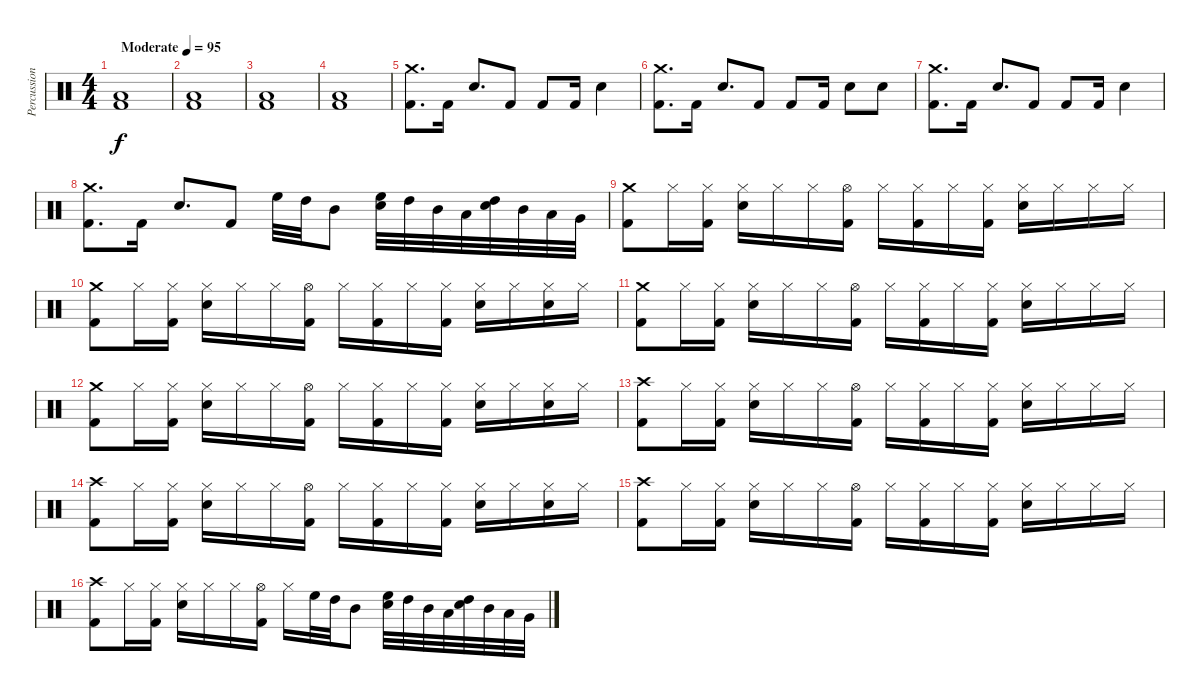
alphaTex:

\track ("Percussion" "Percussion") {instrument percussion}
\staff {score}
\articulation defaults
\ts (4 4)
\tempo (95 "Moderate")
\clef neutral
\ks c
("Low Floor Tom (hit)" "Kick (hit) 2").1{dy f} |
("Low Floor Tom (hit)" "Kick (hit) 2").1 |
("Low Floor Tom (hit)" "Kick (hit) 2").1 |
("Low Floor Tom (hit)" "Kick (hit) 2").1 |
("Crash medium (hit)" "Kick (hit) 2").8{d} "Kick (hit) 2".16 "Electric Snare (hit)".8{d} "Kick (hit) 2".8 "Kick (hit) 2".8 "Kick (hit) 2".16 "Electric Snare (hit)".4 |
("Crash medium (hit)" "Kick (hit) 2").8{d} "Kick (hit) 2".16 "Electric Snare (hit)".8{d} "Kick (hit) 2".8 "Kick (hit) 2".8 "Kick (hit) 2".16 "Electric Snare (hit)".8 "Electric Snare (hit)".8 |
("Crash medium (hit)" "Kick (hit) 2").8{d} "Kick (hit) 2".16 "Electric Snare (hit)".8{d} "Kick (hit) 2".8 "Kick (hit) 2".8 "Kick (hit) 2".16 "Electric Snare (hit)".4 |
("Crash medium (hit)" "Kick (hit) 2").8{d} "Kick (hit) 2".16 "Electric Snare (hit)".8{d} "Kick (hit) 2".8 "High Floor Tom (hit)".32 "High Tom (hit)".32 "Mid Tom (hit)".8 ("Electric Snare (hit)" "High Floor Tom (hit)").32 "High Tom (hit)".32 "Mid Tom (hit)".32 "Low Tom (hit)".32 ("Electric Snare (hit)" "High Tom (hit)").32 "Mid Tom (hit)".32 "Low Tom (hit)".32 "Very Low Tom (hit)".32 |
("Crash medium (hit)" "Kick (hit) 2").8 "Hi-Hat (closed)".16 ("Hi-Hat (closed)" "Kick (hit) 2").16 ("Hi-Hat (closed)" "Electric Snare (hit)").16 "Hi-Hat (closed)".16 "Hi-Hat (closed)".16 ("Hi-Hat (open)" "Kick (hit) 2").16 "Hi-Hat (closed)".16 ("Hi-Hat (closed)" "Kick (hit) 2").16 "Hi-Hat (closed)".16 ("Hi-Hat (closed)" "Kick (hit) 2").16 ("Hi-Hat (closed)" "Electric Snare (hit)").16 "Hi-Hat (closed)".16 "Hi-Hat (closed)".16 "Hi-Hat (closed)".16 |
("Crash medium (hit)" "Kick (hit) 2").8 "Hi-Hat (closed)".16 ("Hi-Hat (closed)" "Kick (hit) 2").16 ("Hi-Hat (closed)" "Electric Snare (hit)").16 "Hi-Hat (closed)".16 "Hi-Hat (closed)".16 ("Hi-Hat (open)" "Kick (hit) 2").16 "Hi-Hat (closed)".16 ("Hi-Hat (closed)" "Kick (hit) 2").16 "Hi-Hat (closed)".16 ("Hi-Hat (closed)" "Kick (hit) 2").16 ("Hi-Hat (closed)" "Electric Snare (hit)").16 "Hi-Hat (closed)".16 ("Hi-Hat (closed)" "Electric Snare (hit)").16 "Hi-Hat (closed)".16 |
("Crash medium (hit)" "Kick (hit) 2").8 "Hi-Hat (closed)".16 ("Hi-Hat (closed)" "Kick (hit) 2").16 ("Hi-Hat (closed)" "Electric Snare (hit)").16 "Hi-Hat (closed)".16 "Hi-Hat (closed)".16 ("Hi-Hat (open)" "Kick (hit) 2").16 "Hi-Hat (closed)".16 ("Hi-Hat (closed)" "Kick (hit) 2").16 "Hi-Hat (closed)".16 ("Hi-Hat (closed)" "Kick (hit) 2").16 ("Hi-Hat (closed)" "Electric Snare (hit)").16 "Hi-Hat (closed)".16 "Hi-Hat (closed)".16 "Hi-Hat (closed)".16 |
("Crash medium (hit)" "Kick (hit) 2").8 "Hi-Hat (closed)".16 ("Hi-Hat (closed)" "Kick (hit) 2").16 ("Hi-Hat (closed)" "Electric Snare (hit)").16 "Hi-Hat (closed)".16 "Hi-Hat (closed)".16 ("Hi-Hat (open)" "Kick (hit) 2").16 "Hi-Hat (closed)".16 ("Hi-Hat (closed)" "Kick (hit) 2").16 "Hi-Hat (closed)".16 ("Hi-Hat (closed)" "Kick (hit) 2").16 ("Hi-Hat (closed)" "Electric Snare (hit)").16 "Hi-Hat (closed)".16 ("Hi-Hat (closed)" "Electric Snare (hit)").16 "Hi-Hat (closed)".16 |
("Crash high (hit)" "Kick (hit) 2").8 "Hi-Hat (closed)".16 ("Hi-Hat (closed)" "Kick (hit) 2").16 ("Hi-Hat (closed)" "Electric Snare (hit)").16 "Hi-Hat (closed)".16 "Hi-Hat (closed)".16 ("Hi-Hat (open)" "Kick (hit) 2").16 "Hi-Hat (closed)".16 ("Hi-Hat (closed)" "Kick (hit) 2").16 "Hi-Hat (closed)".16 ("Hi-Hat (closed)" "Kick (hit) 2").16 ("Hi-Hat (closed)" "Electric Snare (hit)").16 "Hi-Hat (closed)".16 "Hi-Hat (closed)".16 "Hi-Hat (closed)".16 |
("Crash high (hit)" "Kick (hit) 2").8 "Hi-Hat (closed)".16 ("Hi-Hat (closed)" "Kick (hit) 2").16 ("Hi-Hat (closed)" "Electric Snare (hit)").16 "Hi-Hat (closed)".16 "Hi-Hat (closed)".16 ("Hi-Hat (open)" "Kick (hit) 2").16 "Hi-Hat (closed)".16 ("Hi-Hat (closed)" "Kick (hit) 2").16 "Hi-Hat (closed)".16 ("Hi-Hat (closed)" "Kick (hit) 2").16 ("Hi-Hat (closed)" "Electric Snare (hit)").16 "Hi-Hat (closed)".16 ("Hi-Hat (closed)" "Electric Snare (hit)").16 "Hi-Hat (closed)".16 |
("Crash high (hit)" "Kick (hit) 2").8 "Hi-Hat (closed)".16 ("Hi-Hat (closed)" "Kick (hit) 2").16 ("Hi-Hat (closed)" "Electric Snare (hit)").16 "Hi-Hat (closed)".16 "Hi-Hat (closed)".16 ("Hi-Hat (open)" "Kick (hit) 2").16 "Hi-Hat (closed)".16 ("Hi-Hat (closed)" "Kick (hit) 2").16 "Hi-Hat (closed)".16 ("Hi-Hat (closed)" "Kick (hit) 2").16 ("Hi-Hat (closed)" "Electric Snare (hit)").16 "Hi-Hat (closed)".16 "Hi-Hat (closed)".16 "Hi-Hat (closed)".16 |
("Crash high (hit)" "Kick (hit) 2").8 "Hi-Hat (closed)".16 ("Hi-Hat (closed)" "Kick (hit) 2").16 ("Hi-Hat (closed)" "Electric Snare (hit)").16 "Hi-Hat (closed)".16 "Hi-Hat (closed)".16 ("Hi-Hat (open)" "Kick (hit) 2").16 "Hi-Hat (closed)".16 "High Floor Tom (hit)".32 "High Tom (hit)".32 "Mid Tom (hit)".8 ("Electric Snare (hit)" "High Floor Tom (hit)").32 "High Tom (hit)".32 "Mid Tom (hit)".32 "Low Tom (hit)".32 ("Electric Snare (hit)" "High Tom (hit)").32 "Mid Tom (hit)".32 "Low Tom (hit)".32 "Very Low Tom (hit)".32
